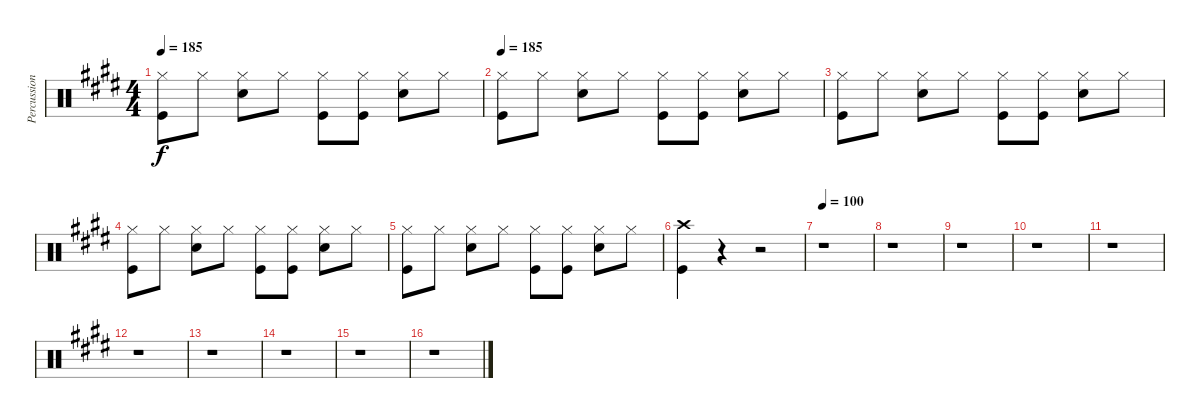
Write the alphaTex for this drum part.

\track ("Percussion" "Percussion") {instrument percussion}
\staff {score}
\articulation defaults
\ts (4 4)
\tempo 185
\clef neutral
\ks e
("Hi-Hat (closed)" "Kick (hit)").8{dy f} "Hi-Hat (closed)".8 ("Hi-Hat (closed)" "Snare (hit) 2").8 "Hi-Hat (closed)".8 ("Hi-Hat (closed)" "Kick (hit)").8 ("Hi-Hat (closed)" "Kick (hit)").8 ("Hi-Hat (closed)" "Snare (hit) 2").8 "Hi-Hat (closed)".8 |
\tempo 185
("Hi-Hat (closed)" "Kick (hit)").8 "Hi-Hat (closed)".8 ("Hi-Hat (closed)" "Snare (hit) 2").8 "Hi-Hat (closed)".8 ("Hi-Hat (closed)" "Kick (hit)").8 ("Hi-Hat (closed)" "Kick (hit)").8 ("Hi-Hat (closed)" "Snare (hit) 2").8 "Hi-Hat (closed)".8 |
("Hi-Hat (closed)" "Kick (hit)").8 "Hi-Hat (closed)".8 ("Hi-Hat (closed)" "Snare (hit) 2").8 "Hi-Hat (closed)".8 ("Hi-Hat (closed)" "Kick (hit)").8 ("Hi-Hat (closed)" "Kick (hit)").8 ("Hi-Hat (closed)" "Snare (hit) 2").8 "Hi-Hat (closed)".8 |
("Hi-Hat (closed)" "Kick (hit)").8 "Hi-Hat (closed)".8 ("Hi-Hat (closed)" "Snare (hit) 2").8 "Hi-Hat (closed)".8 ("Hi-Hat (closed)" "Kick (hit)").8 ("Hi-Hat (closed)" "Kick (hit)").8 ("Hi-Hat (closed)" "Snare (hit) 2").8 "Hi-Hat (closed)".8 |
("Hi-Hat (closed)" "Kick (hit)").8 "Hi-Hat (closed)".8 ("Hi-Hat (closed)" "Snare (hit) 2").8 "Hi-Hat (closed)".8 ("Hi-Hat (closed)" "Kick (hit)").8 ("Hi-Hat (closed)" "Kick (hit)").8 ("Hi-Hat (closed)" "Snare (hit) 2").8 "Hi-Hat (closed)".8 |
("Crash high (hit)" "Kick (hit)").4 r.4 r.2 |
\tempo 100
r.1 |
r.1 |
r.1 |
r.1 |
r.1 |
r.1 |
r.1 |
r.1 |
r.1 |
r.1
